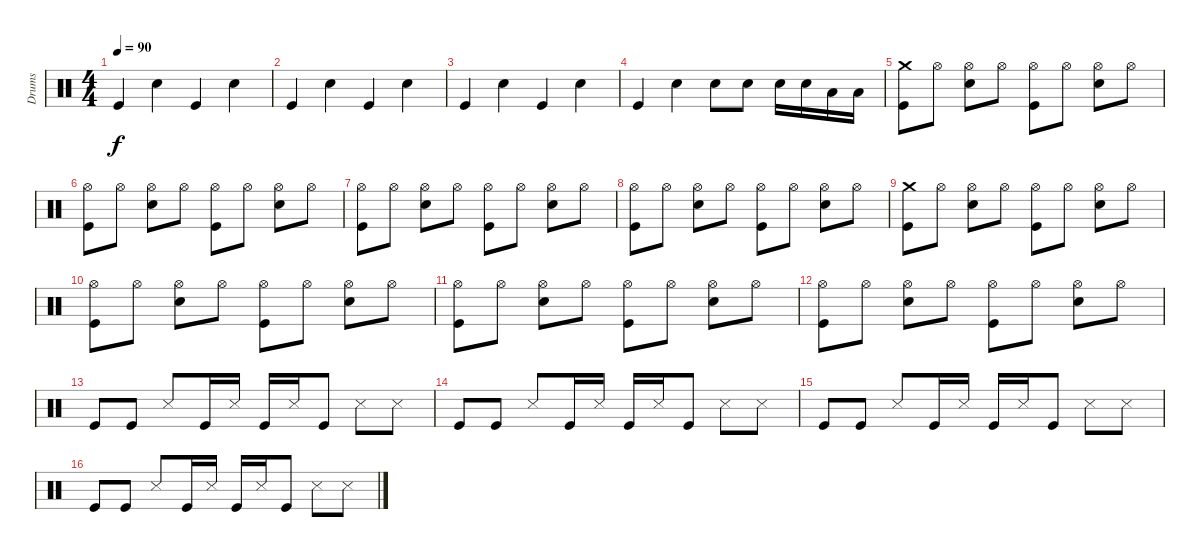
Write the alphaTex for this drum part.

\track ("Drums" "Drums") {instrument percussion}
\staff {score}
\articulation defaults
\ts (4 4)
\tempo 90
\clef neutral
\ks c "Kick (hit)".4{dy f} "Hand Clap (hit)".4 "Kick (hit)".4 "Hand Clap (hit)".4
|
"Kick (hit)".4 "Hand Clap (hit)".4 "Kick (hit)".4 "Hand Clap (hit)".4 |
"Kick (hit)".4 "Hand Clap (hit)".4 "Kick (hit)".4 "Hand Clap (hit)".4 |
"Kick (hit)".4 "Hand Clap (hit)".4 "Hand Clap (hit)".8 "Hand Clap (hit)".8 "Snare (hit) 2".16 "Snare (hit) 2".16 "Low Tom (hit)".16 "Low Tom (hit)".16 |
("Kick (hit)" "Crash medium (hit)").8 "Hi-Hat (open)".8 ("Snare (hit) 2" "Hi-Hat (open)").8 "Hi-Hat (open)".8 ("Kick (hit)" "Hi-Hat (open)").8 "Hi-Hat (open)".8 ("Snare (hit) 2" "Hi-Hat (open)").8 "Hi-Hat (open)".8 |
("Kick (hit)" "Hi-Hat (open)").8 "Hi-Hat (open)".8 ("Snare (hit) 2" "Hi-Hat (open)").8 "Hi-Hat (open)".8 ("Kick (hit)" "Hi-Hat (open)").8 "Hi-Hat (open)".8 ("Snare (hit) 2" "Hi-Hat (open)").8 "Hi-Hat (open)".8 |
("Kick (hit)" "Hi-Hat (open)").8 "Hi-Hat (open)".8 ("Snare (hit) 2" "Hi-Hat (open)").8 "Hi-Hat (open)".8 ("Kick (hit)" "Hi-Hat (open)").8 "Hi-Hat (open)".8 ("Snare (hit) 2" "Hi-Hat (open)").8 "Hi-Hat (open)".8 |
("Kick (hit)" "Hi-Hat (open)").8 "Hi-Hat (open)".8 ("Snare (hit) 2" "Hi-Hat (open)").8 "Hi-Hat (open)".8 ("Kick (hit)" "Hi-Hat (open)").8 "Hi-Hat (open)".8 ("Snare (hit) 2" "Hi-Hat (open)").8 "Hi-Hat (open)".8 |
("Kick (hit)" "Crash medium (hit)").8 "Hi-Hat (open)".8 ("Snare (hit) 2" "Hi-Hat (open)").8 "Hi-Hat (open)".8 ("Kick (hit)" "Hi-Hat (open)").8 "Hi-Hat (open)".8 ("Snare (hit) 2" "Hi-Hat (open)").8 "Hi-Hat (open)".8 |
("Kick (hit)" "Hi-Hat (open)").8 "Hi-Hat (open)".8 ("Snare (hit) 2" "Hi-Hat (open)").8 "Hi-Hat (open)".8 ("Kick (hit)" "Hi-Hat (open)").8 "Hi-Hat (open)".8 ("Snare (hit) 2" "Hi-Hat (open)").8 "Hi-Hat (open)".8 |
("Kick (hit)" "Hi-Hat (open)").8 "Hi-Hat (open)".8 ("Snare (hit) 2" "Hi-Hat (open)").8 "Hi-Hat (open)".8 ("Kick (hit)" "Hi-Hat (open)").8 "Hi-Hat (open)".8 ("Snare (hit) 2" "Hi-Hat (open)").8 "Hi-Hat (open)".8 |
("Kick (hit)" "Hi-Hat (open)").8 "Hi-Hat (open)".8 ("Snare (hit) 2" "Hi-Hat (open)").8 "Hi-Hat (open)".8 ("Kick (hit)" "Hi-Hat (open)").8 "Hi-Hat (open)".8 ("Snare (hit) 2" "Hi-Hat (open)").8 "Hi-Hat (open)".8 |
"Kick (hit)".8 "Kick (hit)".8 "Metronome (hit)".8 "Kick (hit)".16 "Metronome (hit)".16 "Kick (hit)".16 "Metronome (hit)".16 "Kick (hit)".8 "Metronome (hit)".8 "Metronome (hit)".8 |
"Kick (hit)".8 "Kick (hit)".8 "Metronome (hit)".8 "Kick (hit)".16 "Metronome (hit)".16 "Kick (hit)".16 "Metronome (hit)".16 "Kick (hit)".8 "Metronome (hit)".8 "Metronome (hit)".8 |
"Kick (hit)".8 "Kick (hit)".8 "Metronome (hit)".8 "Kick (hit)".16 "Metronome (hit)".16 "Kick (hit)".16 "Metronome (hit)".16 "Kick (hit)".8 "Metronome (hit)".8 "Metronome (hit)".8 |
"Kick (hit)".8 "Kick (hit)".8 "Metronome (hit)".8 "Kick (hit)".16 "Metronome (hit)".16 "Kick (hit)".16 "Metronome (hit)".16 "Kick (hit)".8 "Metronome (hit)".8 "Metronome (hit)".8
